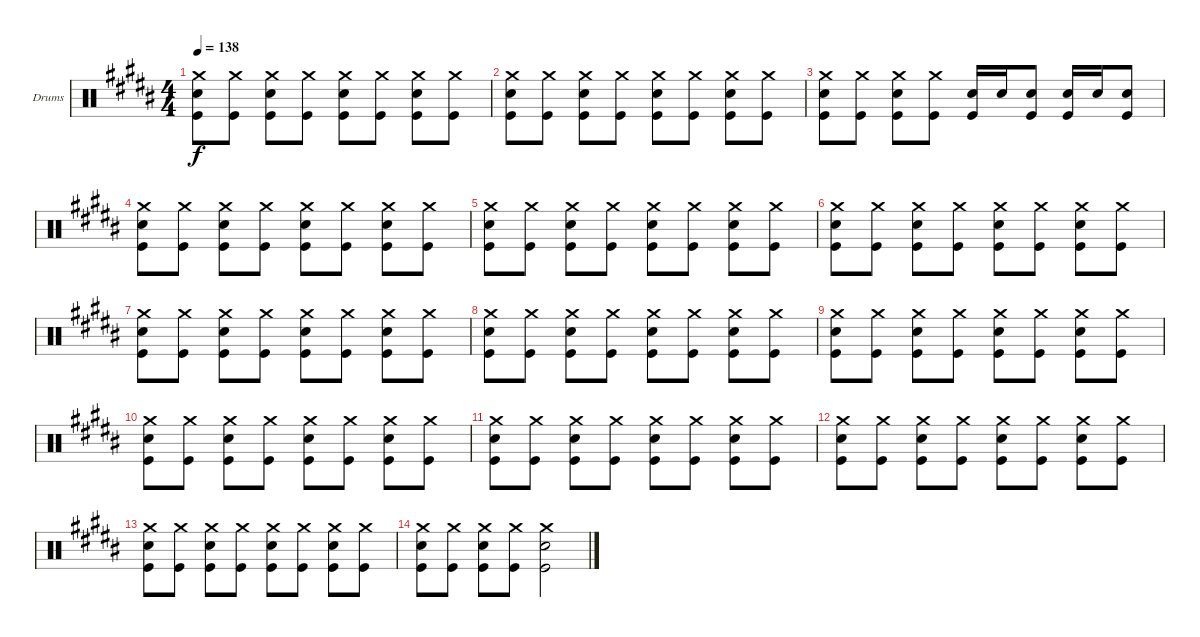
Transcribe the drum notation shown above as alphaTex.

\bracketExtendMode groupsimilarinstruments
\firstSystemTrackNameOrientation horizontal
\otherSystemsTrackNameOrientation horizontal
\track ("Fabrizio Moretti" "Drums") {instrument percussion}
\staff {score}
\articulation defaults
\ts (4 4)
\tempo 138
\clef neutral
\ks b
("Snare (hit) 2" "Kick (hit)" "Crash medium (hit)").8{dy f} ("Kick (hit)" "Crash medium (hit)").8 ("Snare (hit) 2" "Kick (hit)" "Crash medium (hit)").8 ("Kick (hit)" "Crash medium (hit)").8 ("Snare (hit) 2" "Kick (hit)" "Crash medium (hit)").8 ("Kick (hit)" "Crash medium (hit)").8 ("Snare (hit) 2" "Kick (hit)" "Crash medium (hit)").8 ("Kick (hit)" "Crash medium (hit)").8 |
("Snare (hit) 2" "Kick (hit)" "Crash medium (hit)").8 ("Kick (hit)" "Crash medium (hit)").8 ("Snare (hit) 2" "Kick (hit)" "Crash medium (hit)").8 ("Kick (hit)" "Crash medium (hit)").8 ("Snare (hit) 2" "Kick (hit)" "Crash medium (hit)").8 ("Kick (hit)" "Crash medium (hit)").8 ("Snare (hit) 2" "Kick (hit)" "Crash medium (hit)").8 ("Kick (hit)" "Crash medium (hit)").8 |
("Kick (hit)" "Snare (hit) 2" "Crash medium (hit)").8 ("Kick (hit)" "Crash medium (hit)").8 ("Kick (hit)" "Snare (hit) 2" "Crash medium (hit)").8 ("Kick (hit)" "Crash medium (hit)").8 ("Snare (hit) 2" "Kick (hit)").16 "Snare (hit) 2".16 ("Snare (hit) 2" "Kick (hit)").8 ("Snare (hit) 2" "Kick (hit)").16 "Snare (hit) 2".16 ("Snare (hit) 2" "Kick (hit)").8 |
("Snare (hit) 2" "Kick (hit)" "Crash medium (hit)").8 ("Kick (hit)" "Crash medium (hit)").8 ("Snare (hit) 2" "Kick (hit)" "Crash medium (hit)").8 ("Kick (hit)" "Crash medium (hit)").8 ("Snare (hit) 2" "Kick (hit)" "Crash medium (hit)").8 ("Kick (hit)" "Crash medium (hit)").8 ("Snare (hit) 2" "Kick (hit)" "Crash medium (hit)").8 ("Kick (hit)" "Crash medium (hit)").8 |
("Snare (hit) 2" "Kick (hit)" "Crash medium (hit)").8 ("Kick (hit)" "Crash medium (hit)").8 ("Snare (hit) 2" "Kick (hit)" "Crash medium (hit)").8 ("Kick (hit)" "Crash medium (hit)").8 ("Snare (hit) 2" "Kick (hit)" "Crash medium (hit)").8 ("Kick (hit)" "Crash medium (hit)").8 ("Snare (hit) 2" "Kick (hit)" "Crash medium (hit)").8 ("Kick (hit)" "Crash medium (hit)").8 |
("Snare (hit) 2" "Kick (hit)" "Crash medium (hit)").8 ("Kick (hit)" "Crash medium (hit)").8 ("Snare (hit) 2" "Kick (hit)" "Crash medium (hit)").8 ("Kick (hit)" "Crash medium (hit)").8 ("Snare (hit) 2" "Kick (hit)" "Crash medium (hit)").8 ("Kick (hit)" "Crash medium (hit)").8 ("Snare (hit) 2" "Kick (hit)" "Crash medium (hit)").8 ("Kick (hit)" "Crash medium (hit)").8 |
("Snare (hit) 2" "Kick (hit)" "Crash medium (hit)").8 ("Kick (hit)" "Crash medium (hit)").8 ("Snare (hit) 2" "Kick (hit)" "Crash medium (hit)").8 ("Kick (hit)" "Crash medium (hit)").8 ("Snare (hit) 2" "Kick (hit)" "Crash medium (hit)").8 ("Kick (hit)" "Crash medium (hit)").8 ("Snare (hit) 2" "Kick (hit)" "Crash medium (hit)").8 ("Kick (hit)" "Crash medium (hit)").8 |
("Snare (hit) 2" "Kick (hit)" "Crash medium (hit)").8 ("Kick (hit)" "Crash medium (hit)").8 ("Snare (hit) 2" "Kick (hit)" "Crash medium (hit)").8 ("Kick (hit)" "Crash medium (hit)").8 ("Snare (hit) 2" "Kick (hit)" "Crash medium (hit)").8 ("Kick (hit)" "Crash medium (hit)").8 ("Snare (hit) 2" "Kick (hit)" "Crash medium (hit)").8 ("Kick (hit)" "Crash medium (hit)").8 |
("Snare (hit) 2" "Kick (hit)" "Crash medium (hit)").8 ("Kick (hit)" "Crash medium (hit)").8 ("Snare (hit) 2" "Kick (hit)" "Crash medium (hit)").8 ("Kick (hit)" "Crash medium (hit)").8 ("Snare (hit) 2" "Kick (hit)" "Crash medium (hit)").8 ("Kick (hit)" "Crash medium (hit)").8 ("Snare (hit) 2" "Kick (hit)" "Crash medium (hit)").8 ("Kick (hit)" "Crash medium (hit)").8 |
("Snare (hit) 2" "Kick (hit)" "Crash medium (hit)").8 ("Kick (hit)" "Crash medium (hit)").8 ("Snare (hit) 2" "Kick (hit)" "Crash medium (hit)").8 ("Kick (hit)" "Crash medium (hit)").8 ("Snare (hit) 2" "Kick (hit)" "Crash medium (hit)").8 ("Kick (hit)" "Crash medium (hit)").8 ("Snare (hit) 2" "Kick (hit)" "Crash medium (hit)").8 ("Kick (hit)" "Crash medium (hit)").8 |
("Snare (hit) 2" "Kick (hit)" "Crash medium (hit)").8 ("Kick (hit)" "Crash medium (hit)").8 ("Snare (hit) 2" "Kick (hit)" "Crash medium (hit)").8 ("Kick (hit)" "Crash medium (hit)").8 ("Snare (hit) 2" "Kick (hit)" "Crash medium (hit)").8 ("Kick (hit)" "Crash medium (hit)").8 ("Snare (hit) 2" "Kick (hit)" "Crash medium (hit)").8 ("Kick (hit)" "Crash medium (hit)").8 |
("Snare (hit) 2" "Kick (hit)" "Crash medium (hit)").8 ("Kick (hit)" "Crash medium (hit)").8 ("Snare (hit) 2" "Kick (hit)" "Crash medium (hit)").8 ("Kick (hit)" "Crash medium (hit)").8 ("Snare (hit) 2" "Kick (hit)" "Crash medium (hit)").8 ("Kick (hit)" "Crash medium (hit)").8 ("Snare (hit) 2" "Kick (hit)" "Crash medium (hit)").8 ("Kick (hit)" "Crash medium (hit)").8 |
("Snare (hit) 2" "Kick (hit)" "Crash medium (hit)").8 ("Kick (hit)" "Crash medium (hit)").8 ("Snare (hit) 2" "Kick (hit)" "Crash medium (hit)").8 ("Kick (hit)" "Crash medium (hit)").8 ("Snare (hit) 2" "Kick (hit)" "Crash medium (hit)").8 ("Kick (hit)" "Crash medium (hit)").8 ("Snare (hit) 2" "Kick (hit)" "Crash medium (hit)").8 ("Kick (hit)" "Crash medium (hit)").8 |
("Kick (hit)" "Snare (hit) 2" "Crash medium (hit)").8 ("Kick (hit)" "Crash medium (hit)").8 ("Kick (hit)" "Snare (hit) 2" "Crash medium (hit)").8 ("Kick (hit)" "Crash medium (hit)").8 ("Snare (hit) 2" "Kick (hit)" "Crash medium (hit)").2
